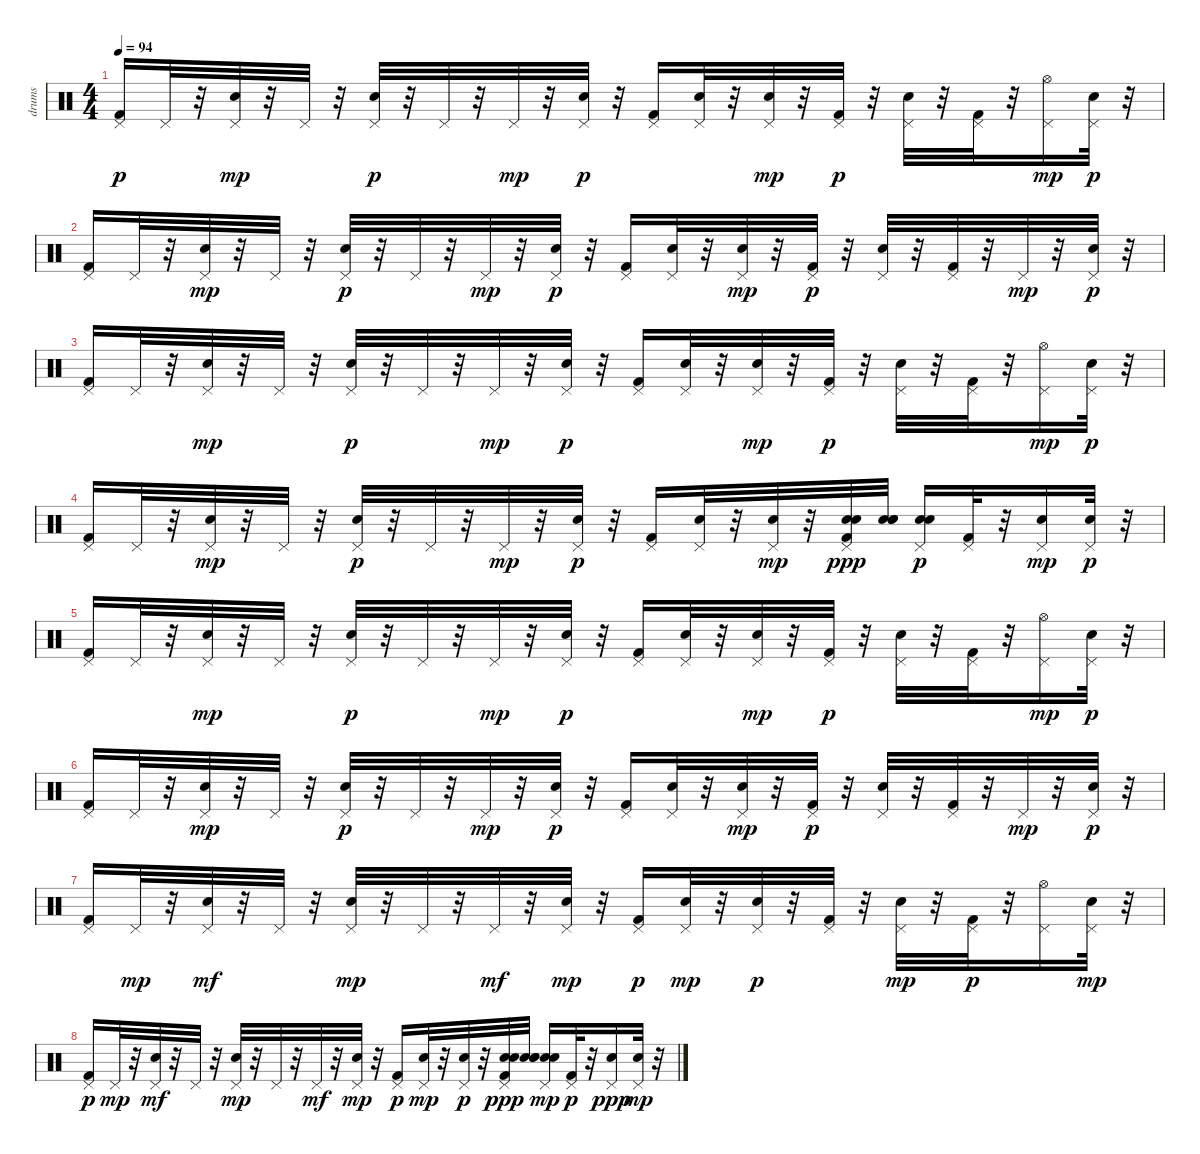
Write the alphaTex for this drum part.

\track ("drums" "drums") {instrument percussion}
\staff {score}
\articulation defaults
\ts (4 4)
\tempo 94
\clef neutral
\ks c
("Pedal Hi-Hat (hit)" "Kick (hit) 2").16{dy p} "Pedal Hi-Hat (hit)".32 r.32 ("Electric Snare (hit)" "Pedal Hi-Hat (hit)").32{dy mp} r.32 "Pedal Hi-Hat (hit)".32 r.32 ("Electric Snare (hit)" "Pedal Hi-Hat (hit)").32{dy p} r.32 "Pedal Hi-Hat (hit)".32 r.32 "Pedal Hi-Hat (hit)".32{dy mp} r.32 ("Electric Snare (hit)" "Pedal Hi-Hat (hit)").32{dy p} r.32 ("Pedal Hi-Hat (hit)" "Kick (hit) 2").16 ("Electric Snare (hit)" "Pedal Hi-Hat (hit)").32 r.32 ("Electric Snare (hit)" "Pedal Hi-Hat (hit)").32{dy mp} r.32 ("Pedal Hi-Hat (hit)" "Kick (hit) 2").32{dy p} r.32 ("Electric Snare (hit)" "Pedal Hi-Hat (hit)").32 r.32 ("Pedal Hi-Hat (hit)" "Kick (hit) 2").32 r.32 ("Hi-Hat (open)" "Pedal Hi-Hat (hit)").16{dy mp} ("Electric Snare (hit)" "Pedal Hi-Hat (hit)").32{dy p} r.32 |
("Pedal Hi-Hat (hit)" "Kick (hit) 2").16 "Pedal Hi-Hat (hit)".32 r.32 ("Electric Snare (hit)" "Pedal Hi-Hat (hit)").32{dy mp} r.32 "Pedal Hi-Hat (hit)".32 r.32 ("Electric Snare (hit)" "Pedal Hi-Hat (hit)").32{dy p} r.32 "Pedal Hi-Hat (hit)".32 r.32 "Pedal Hi-Hat (hit)".32{dy mp} r.32 ("Electric Snare (hit)" "Pedal Hi-Hat (hit)").32{dy p} r.32 ("Pedal Hi-Hat (hit)" "Kick (hit) 2").16 ("Electric Snare (hit)" "Pedal Hi-Hat (hit)").32 r.32 ("Electric Snare (hit)" "Pedal Hi-Hat (hit)").32{dy mp} r.32 ("Pedal Hi-Hat (hit)" "Kick (hit) 2").32{dy p} r.32 ("Electric Snare (hit)" "Pedal Hi-Hat (hit)").32 r.32 ("Pedal Hi-Hat (hit)" "Kick (hit) 2").32 r.32 "Pedal Hi-Hat (hit)".32{dy mp} r.32 ("Electric Snare (hit)" "Pedal Hi-Hat (hit)").32{dy p} r.32 |
("Pedal Hi-Hat (hit)" "Kick (hit) 2").16 "Pedal Hi-Hat (hit)".32 r.32 ("Electric Snare (hit)" "Pedal Hi-Hat (hit)").32{dy mp} r.32 "Pedal Hi-Hat (hit)".32 r.32 ("Electric Snare (hit)" "Pedal Hi-Hat (hit)").32{dy p} r.32 "Pedal Hi-Hat (hit)".32 r.32 "Pedal Hi-Hat (hit)".32{dy mp} r.32 ("Electric Snare (hit)" "Pedal Hi-Hat (hit)").32{dy p} r.32 ("Pedal Hi-Hat (hit)" "Kick (hit) 2").16 ("Electric Snare (hit)" "Pedal Hi-Hat (hit)").32 r.32 ("Electric Snare (hit)" "Pedal Hi-Hat (hit)").32{dy mp} r.32 ("Pedal Hi-Hat (hit)" "Kick (hit) 2").32{dy p} r.32 ("Electric Snare (hit)" "Pedal Hi-Hat (hit)").32 r.32 ("Pedal Hi-Hat (hit)" "Kick (hit) 2").32 r.32 ("Hi-Hat (open)" "Pedal Hi-Hat (hit)").16{dy mp} ("Electric Snare (hit)" "Pedal Hi-Hat (hit)").32{dy p} r.32 |
("Pedal Hi-Hat (hit)" "Kick (hit) 2").16 "Pedal Hi-Hat (hit)".32 r.32 ("Electric Snare (hit)" "Pedal Hi-Hat (hit)").32{dy mp} r.32 "Pedal Hi-Hat (hit)".32 r.32 ("Electric Snare (hit)" "Pedal Hi-Hat (hit)").32{dy p} r.32 "Pedal Hi-Hat (hit)".32 r.32 "Pedal Hi-Hat (hit)".32{dy mp} r.32 ("Electric Snare (hit)" "Pedal Hi-Hat (hit)").32{dy p} r.32 ("Pedal Hi-Hat (hit)" "Kick (hit) 2").16 ("Electric Snare (hit)" "Pedal Hi-Hat (hit)").32 r.32 ("Electric Snare (hit)" "Pedal Hi-Hat (hit)").32{dy mp} r.32 ("Snare (hit) 2" "Pedal Hi-Hat (hit)" "Kick (hit) 2" "Snare (hit) 2").32{dy ppp} ("Snare (hit) 2" "Snare (hit) 2" "Snare (hit) 2").32 ("Snare (hit) 2" "Snare (hit) 2" "Pedal Hi-Hat (hit)").16{dy p} ("Pedal Hi-Hat (hit)" "Kick (hit) 2").32 r.32 ("Snare (hit) 2" "Pedal Hi-Hat (hit)").16{dy mp} ("Electric Snare (hit)" "Pedal Hi-Hat (hit)").32{dy p} r.32 |
("Pedal Hi-Hat (hit)" "Kick (hit) 2").16 "Pedal Hi-Hat (hit)".32 r.32 ("Electric Snare (hit)" "Pedal Hi-Hat (hit)").32{dy mp} r.32 "Pedal Hi-Hat (hit)".32 r.32 ("Electric Snare (hit)" "Pedal Hi-Hat (hit)").32{dy p} r.32 "Pedal Hi-Hat (hit)".32 r.32 "Pedal Hi-Hat (hit)".32{dy mp} r.32 ("Electric Snare (hit)" "Pedal Hi-Hat (hit)").32{dy p} r.32 ("Pedal Hi-Hat (hit)" "Kick (hit) 2").16 ("Electric Snare (hit)" "Pedal Hi-Hat (hit)").32 r.32 ("Electric Snare (hit)" "Pedal Hi-Hat (hit)").32{dy mp} r.32 ("Pedal Hi-Hat (hit)" "Kick (hit) 2").32{dy p} r.32 ("Electric Snare (hit)" "Pedal Hi-Hat (hit)").32 r.32 ("Pedal Hi-Hat (hit)" "Kick (hit) 2").32 r.32 ("Hi-Hat (open)" "Pedal Hi-Hat (hit)").16{dy mp} ("Electric Snare (hit)" "Pedal Hi-Hat (hit)").32{dy p} r.32 |
("Pedal Hi-Hat (hit)" "Kick (hit) 2").16 "Pedal Hi-Hat (hit)".32 r.32 ("Electric Snare (hit)" "Pedal Hi-Hat (hit)").32{dy mp} r.32 "Pedal Hi-Hat (hit)".32 r.32 ("Electric Snare (hit)" "Pedal Hi-Hat (hit)").32{dy p} r.32 "Pedal Hi-Hat (hit)".32 r.32 "Pedal Hi-Hat (hit)".32{dy mp} r.32 ("Electric Snare (hit)" "Pedal Hi-Hat (hit)").32{dy p} r.32 ("Pedal Hi-Hat (hit)" "Kick (hit) 2").16 ("Electric Snare (hit)" "Pedal Hi-Hat (hit)").32 r.32 ("Electric Snare (hit)" "Pedal Hi-Hat (hit)").32{dy mp} r.32 ("Pedal Hi-Hat (hit)" "Kick (hit) 2").32{dy p} r.32 ("Electric Snare (hit)" "Pedal Hi-Hat (hit)").32 r.32 ("Pedal Hi-Hat (hit)" "Kick (hit) 2").32 r.32 "Pedal Hi-Hat (hit)".32{dy mp} r.32 ("Electric Snare (hit)" "Pedal Hi-Hat (hit)").32{dy p} r.32 |
("Pedal Hi-Hat (hit)" "Kick (hit) 2").16 "Pedal Hi-Hat (hit)".32{dy mp} r.32 ("Electric Snare (hit)" "Pedal Hi-Hat (hit)").32{dy mf} r.32 "Pedal Hi-Hat (hit)".32 r.32 ("Electric Snare (hit)" "Pedal Hi-Hat (hit)").32{dy mp} r.32 "Pedal Hi-Hat (hit)".32 r.32 "Pedal Hi-Hat (hit)".32{dy mf} r.32 ("Electric Snare (hit)" "Pedal Hi-Hat (hit)").32{dy mp} r.32 ("Pedal Hi-Hat (hit)" "Kick (hit) 2").16{dy p} ("Electric Snare (hit)" "Pedal Hi-Hat (hit)").32{dy mp} r.32 ("Electric Snare (hit)" "Pedal Hi-Hat (hit)").32{dy p} r.32 ("Pedal Hi-Hat (hit)" "Kick (hit) 2").32 r.32 ("Electric Snare (hit)" "Pedal Hi-Hat (hit)").32{dy mp} r.32 ("Pedal Hi-Hat (hit)" "Kick (hit) 2").32{dy p} r.32 ("Hi-Hat (open)" "Pedal Hi-Hat (hit)").16 ("Electric Snare (hit)" "Pedal Hi-Hat (hit)").32{dy mp} r.32 |
("Pedal Hi-Hat (hit)" "Kick (hit) 2").16{dy p} "Pedal Hi-Hat (hit)".32{dy mp} r.32 ("Electric Snare (hit)" "Pedal Hi-Hat (hit)").32{dy mf} r.32 "Pedal Hi-Hat (hit)".32 r.32 ("Electric Snare (hit)" "Pedal Hi-Hat (hit)").32{dy mp} r.32 "Pedal Hi-Hat (hit)".32 r.32 "Pedal Hi-Hat (hit)".32{dy mf} r.32 ("Electric Snare (hit)" "Pedal Hi-Hat (hit)").32{dy mp} r.32 ("Pedal Hi-Hat (hit)" "Kick (hit) 2").16{dy p} ("Electric Snare (hit)" "Pedal Hi-Hat (hit)").32{dy mp} r.32 ("Electric Snare (hit)" "Pedal Hi-Hat (hit)").32{dy p} r.32 ("Snare (hit) 2" "Pedal Hi-Hat (hit)" "Kick (hit) 2" "Snare (hit) 2").32{dy ppp} ("Snare (hit) 2" "Snare (hit) 2" "Snare (hit) 2").32 ("Snare (hit) 2" "Snare (hit) 2" "Pedal Hi-Hat (hit)").16{dy mp} ("Pedal Hi-Hat (hit)" "Kick (hit) 2").32{dy p} r.32 ("Snare (hit) 2" "Pedal Hi-Hat (hit)").16{dy ppp} ("Electric Snare (hit)" "Pedal Hi-Hat (hit)").32{dy mp} r.32
